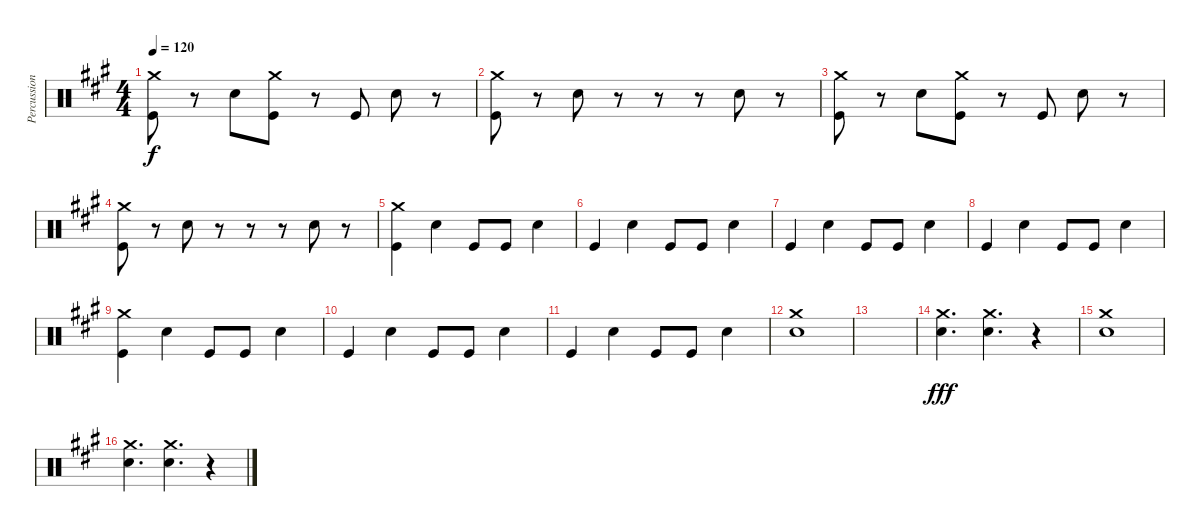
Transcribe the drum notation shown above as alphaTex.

\track ("Percussion" "Percussion") {instrument percussion}
\staff {score}
\articulation defaults
\ts (4 4)
\tempo 120
\clef neutral
\ks a
("Crash medium (hit)" "Kick (hit)").8{dy f} r.8 "Snare (hit) 2".8 ("Crash medium (hit)" "Kick (hit)").8 r.8 "Kick (hit)".8 "Snare (hit) 2".8 r.8 |
("Crash medium (hit)" "Kick (hit)").8 r.8 "Snare (hit) 2".8 r.8 r.8 r.8 "Snare (hit) 2".8 r.8 |
("Crash medium (hit)" "Kick (hit)").8 r.8 "Snare (hit) 2".8 ("Crash medium (hit)" "Kick (hit)").8 r.8 "Kick (hit)".8 "Snare (hit) 2".8 r.8 |
("Crash medium (hit)" "Kick (hit)").8 r.8 "Snare (hit) 2".8 r.8 r.8 r.8 "Snare (hit) 2".8 r.8 |
("Kick (hit)" "Crash medium (hit)").4 "Snare (hit) 2".4 "Kick (hit)".8 "Kick (hit)".8 "Snare (hit) 2".4 |
"Kick (hit)".4 "Snare (hit) 2".4 "Kick (hit)".8 "Kick (hit)".8 "Snare (hit) 2".4 |
"Kick (hit)".4 "Snare (hit) 2".4 "Kick (hit)".8 "Kick (hit)".8 "Snare (hit) 2".4 |
"Kick (hit)".4 "Snare (hit) 2".4 "Kick (hit)".8 "Kick (hit)".8 "Snare (hit) 2".4 |
("Kick (hit)" "Crash medium (hit)").4 "Snare (hit) 2".4 "Kick (hit)".8 "Kick (hit)".8 "Snare (hit) 2".4 |
"Kick (hit)".4 "Snare (hit) 2".4 "Kick (hit)".8 "Kick (hit)".8 "Snare (hit) 2".4 |
"Kick (hit)".4 "Snare (hit) 2".4 "Kick (hit)".8 "Kick (hit)".8 "Snare (hit) 2".4 |
("Crash medium (hit)" "Snare (hit) 2").1 |
|
("Crash medium (hit)" "Snare (hit) 2").4{d dy fff} ("Crash medium (hit)" "Snare (hit) 2").4{d} r.4 |
("Crash medium (hit)" "Snare (hit) 2").1 |
("Crash medium (hit)" "Snare (hit) 2").4{d} ("Crash medium (hit)" "Snare (hit) 2").4{d} r.4
